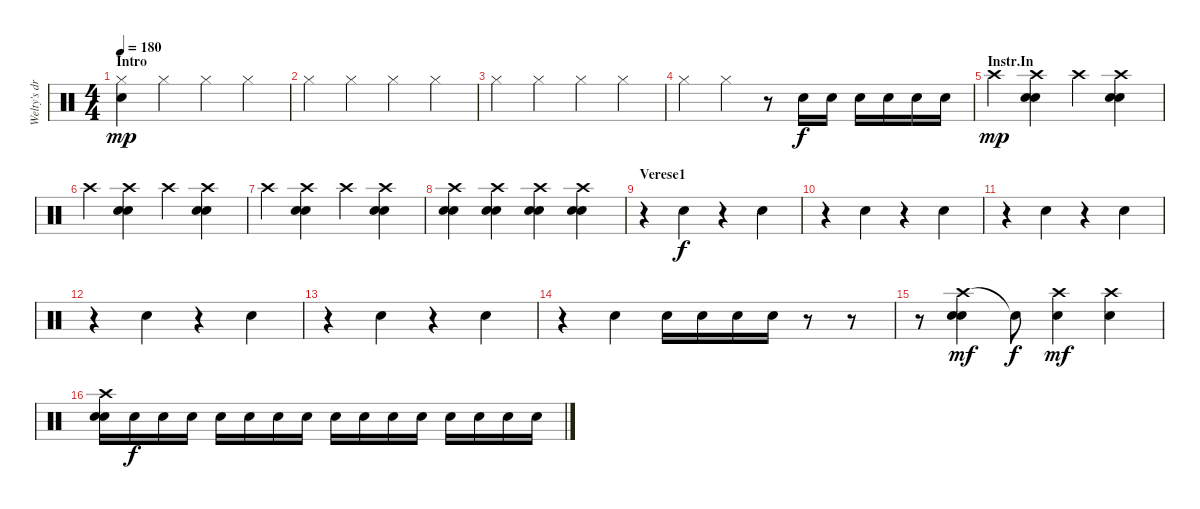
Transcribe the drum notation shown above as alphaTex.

\track ("Welty's drums" "Welty's dr") {instrument percussion}
\staff {score}
\articulation defaults
\ts (4 4)
\section ("" "Intro")
\tempo 180
\clef neutral
\ks c
("Hi-Hat (closed)" "Electric Snare (hit)").4{dy mp} "Hi-Hat (closed)".4 "Hi-Hat (closed)".4 "Hi-Hat (closed)".4 |
"Hi-Hat (closed)".4 "Hi-Hat (closed)".4 "Hi-Hat (closed)".4 "Hi-Hat (closed)".4 |
"Hi-Hat (closed)".4 "Hi-Hat (closed)".4 "Hi-Hat (closed)".4 "Hi-Hat (closed)".4 |
"Hi-Hat (closed)".4 "Hi-Hat (closed)".4 r.8 "Electric Snare (hit)".16{dy f} "Electric Snare (hit)".16 "Electric Snare (hit)".16 "Electric Snare (hit)".16 "Electric Snare (hit)".16 "Electric Snare (hit)".16 |
\section ("" "Instr.In")
"Crash high (hit)".4{dy mp} ("Crash high (hit)" "Electric Snare (hit)" "Electric Snare (hit)").4 "Crash high (hit)".4 ("Crash high (hit)" "Electric Snare (hit)" "Electric Snare (hit)").4 |
"Crash high (hit)".4 ("Crash high (hit)" "Electric Snare (hit)" "Electric Snare (hit)").4 "Crash high (hit)".4 ("Crash high (hit)" "Electric Snare (hit)" "Electric Snare (hit)").4 |
"Crash high (hit)".4 ("Crash high (hit)" "Electric Snare (hit)" "Electric Snare (hit)").4 "Crash high (hit)".4 ("Crash high (hit)" "Electric Snare (hit)" "Electric Snare (hit)").4 |
("Crash high (hit)" "Electric Snare (hit)" "Electric Snare (hit)").4 ("Crash high (hit)" "Electric Snare (hit)" "Electric Snare (hit)").4 ("Crash high (hit)" "Electric Snare (hit)" "Electric Snare (hit)").4 ("Crash high (hit)" "Electric Snare (hit)" "Electric Snare (hit)").4 |
\section ("" "Verese1")
r.4 "Electric Snare (hit)".4{dy f} r.4 "Electric Snare (hit)".4 |
r.4 "Electric Snare (hit)".4 r.4 "Electric Snare (hit)".4 |
r.4 "Electric Snare (hit)".4 r.4 "Electric Snare (hit)".4 |
r.4 "Electric Snare (hit)".4 r.4 "Electric Snare (hit)".4 |
r.4 "Electric Snare (hit)".4 r.4 "Electric Snare (hit)".4 |
r.4 "Electric Snare (hit)".4 "Electric Snare (hit)".16 "Electric Snare (hit)".16 "Electric Snare (hit)".16 "Electric Snare (hit)".16 r.8 r.8 |
\section ("" "")
r.8 ("Crash high (hit)" "Electric Snare (hit)" "Electric Snare (hit)").4{dy mf} "Snare (hit)"{t}.8{dy f} ("Crash high (hit)" "Electric Snare (hit)").4{dy mf} ("Crash high (hit)" "Electric Snare (hit)").4 |
("Crash high (hit)" "Electric Snare (hit)" "Electric Snare (hit)").16 "Electric Snare (hit)".16{dy f} "Electric Snare (hit)".16 "Electric Snare (hit)".16 "Electric Snare (hit)".16 "Electric Snare (hit)".16 "Electric Snare (hit)".16 "Electric Snare (hit)".16 "Electric Snare (hit)".16 "Electric Snare (hit)".16 "Electric Snare (hit)".16 "Electric Snare (hit)".16 "Electric Snare (hit)".16 "Electric Snare (hit)".16 "Electric Snare (hit)".16 "Electric Snare (hit)".16
